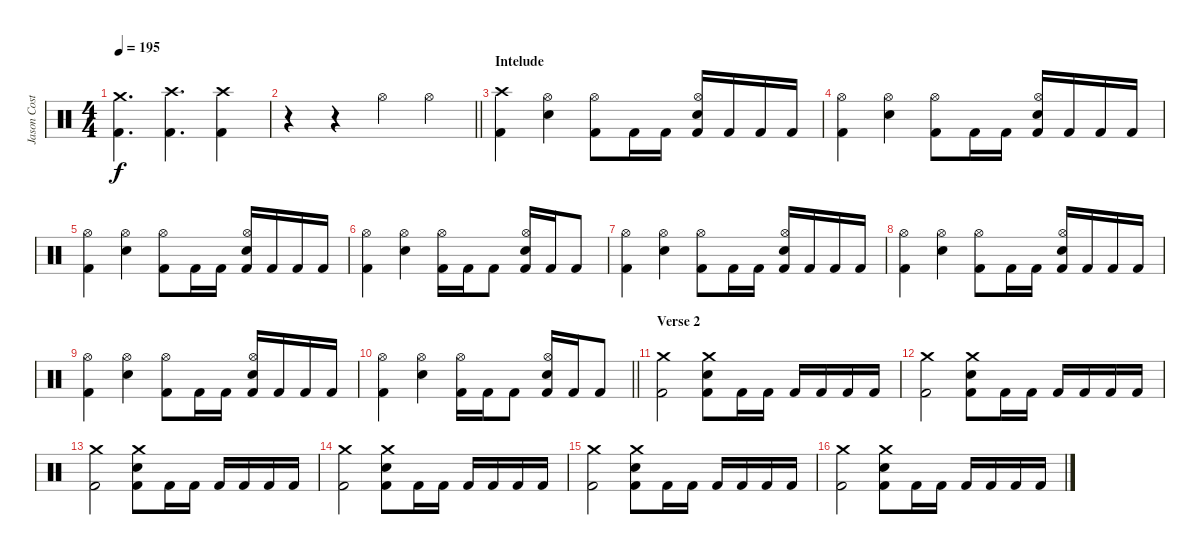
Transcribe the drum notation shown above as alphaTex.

\track ("Jason Costa" "Jason Cost") {instrument percussion}
\staff {score}
\articulation defaults
\ts (4 4)
\tempo 195
\clef neutral
\ks c
("Crash medium (hit)" "Kick (hit) 2").4{d dy f} ("Crash high (hit)" "Kick (hit) 2").4{d} ("Crash high (hit)" "Kick (hit) 2").4 |
\barLineRight lightlight
r.4 r.4 "Hi-Hat (open)".4 "Hi-Hat (open)".4 |
\section ("" "Intelude")
("Crash high (hit)" "Kick (hit) 2").4 ("Hi-Hat (open)" "Electric Snare (hit)").4 ("Hi-Hat (open)" "Kick (hit) 2").8 "Kick (hit) 2".16 "Kick (hit) 2".16 ("Hi-Hat (open)" "Electric Snare (hit)" "Kick (hit) 2").16 "Kick (hit) 2".16 "Kick (hit) 2".16 "Kick (hit) 2".16 |
("Hi-Hat (open)" "Kick (hit) 2").4 ("Hi-Hat (open)" "Electric Snare (hit)").4 ("Hi-Hat (open)" "Kick (hit) 2").8 "Kick (hit) 2".16 "Kick (hit) 2".16 ("Hi-Hat (open)" "Electric Snare (hit)" "Kick (hit) 2").16 "Kick (hit) 2".16 "Kick (hit) 2".16 "Kick (hit) 2".16 |
("Hi-Hat (open)" "Kick (hit) 2").4 ("Hi-Hat (open)" "Electric Snare (hit)").4 ("Hi-Hat (open)" "Kick (hit) 2").8 "Kick (hit) 2".16 "Kick (hit) 2".16 ("Hi-Hat (open)" "Electric Snare (hit)" "Kick (hit) 2").16 "Kick (hit) 2".16 "Kick (hit) 2".16 "Kick (hit) 2".16 |
("Hi-Hat (open)" "Kick (hit) 2").4 ("Hi-Hat (open)" "Electric Snare (hit)").4 ("Hi-Hat (open)" "Kick (hit) 2").16 "Kick (hit) 2".16 "Kick (hit) 2".8 ("Hi-Hat (open)" "Electric Snare (hit)" "Kick (hit) 2").16 "Kick (hit) 2".16 "Kick (hit) 2".8 |
("Hi-Hat (open)" "Kick (hit) 2").4 ("Hi-Hat (open)" "Electric Snare (hit)").4 ("Hi-Hat (open)" "Kick (hit) 2").8 "Kick (hit) 2".16 "Kick (hit) 2".16 ("Hi-Hat (open)" "Electric Snare (hit)" "Kick (hit) 2").16 "Kick (hit) 2".16 "Kick (hit) 2".16 "Kick (hit) 2".16 |
("Hi-Hat (open)" "Kick (hit) 2").4 ("Hi-Hat (open)" "Electric Snare (hit)").4 ("Hi-Hat (open)" "Kick (hit) 2").8 "Kick (hit) 2".16 "Kick (hit) 2".16 ("Hi-Hat (open)" "Electric Snare (hit)" "Kick (hit) 2").16 "Kick (hit) 2".16 "Kick (hit) 2".16 "Kick (hit) 2".16 |
("Hi-Hat (open)" "Kick (hit) 2").4 ("Hi-Hat (open)" "Electric Snare (hit)").4 ("Hi-Hat (open)" "Kick (hit) 2").8 "Kick (hit) 2".16 "Kick (hit) 2".16 ("Hi-Hat (open)" "Electric Snare (hit)" "Kick (hit) 2").16 "Kick (hit) 2".16 "Kick (hit) 2".16 "Kick (hit) 2".16 |
\barLineRight lightlight
("Hi-Hat (open)" "Kick (hit) 2").4 ("Hi-Hat (open)" "Electric Snare (hit)").4 ("Hi-Hat (open)" "Kick (hit) 2").16 "Kick (hit) 2".16 "Kick (hit) 2".8 ("Hi-Hat (open)" "Electric Snare (hit)" "Kick (hit) 2").16 "Kick (hit) 2".16 "Kick (hit) 2".8 |
\section ("" "Verse 2")
("Crash medium (hit)" "Kick (hit) 2").2 ("Crash medium (hit)" "Electric Snare (hit)" "Kick (hit) 2").8 "Kick (hit) 2".16 "Kick (hit) 2".16 "Kick (hit) 2".16 "Kick (hit) 2".16 "Kick (hit) 2".16 "Kick (hit) 2".16 |
("Crash medium (hit)" "Kick (hit) 2").2 ("Crash medium (hit)" "Electric Snare (hit)" "Kick (hit) 2").8 "Kick (hit) 2".16 "Kick (hit) 2".16 "Kick (hit) 2".16 "Kick (hit) 2".16 "Kick (hit) 2".16 "Kick (hit) 2".16 |
("Crash medium (hit)" "Kick (hit) 2").2 ("Crash medium (hit)" "Electric Snare (hit)" "Kick (hit) 2").8 "Kick (hit) 2".16 "Kick (hit) 2".16 "Kick (hit) 2".16 "Kick (hit) 2".16 "Kick (hit) 2".16 "Kick (hit) 2".16 |
("Crash medium (hit)" "Kick (hit) 2").2 ("Crash medium (hit)" "Electric Snare (hit)" "Kick (hit) 2").8 "Kick (hit) 2".16 "Kick (hit) 2".16 "Kick (hit) 2".16 "Kick (hit) 2".16 "Kick (hit) 2".16 "Kick (hit) 2".16 |
("Crash medium (hit)" "Kick (hit) 2").2 ("Crash medium (hit)" "Electric Snare (hit)" "Kick (hit) 2").8 "Kick (hit) 2".16 "Kick (hit) 2".16 "Kick (hit) 2".16 "Kick (hit) 2".16 "Kick (hit) 2".16 "Kick (hit) 2".16 |
("Crash medium (hit)" "Kick (hit) 2").2 ("Crash medium (hit)" "Electric Snare (hit)" "Kick (hit) 2").8 "Kick (hit) 2".16 "Kick (hit) 2".16 "Kick (hit) 2".16 "Kick (hit) 2".16 "Kick (hit) 2".16 "Kick (hit) 2".16
